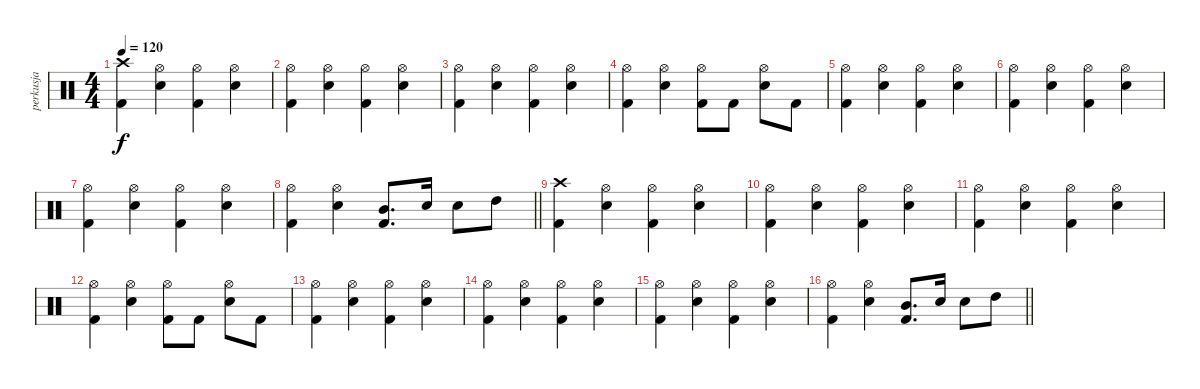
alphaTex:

\track ("perkusja" "perkusja") {instrument percussion}
\staff {score}
\articulation defaults
\ts (4 4)
\tempo 120
\clef neutral
\ks c
("Crash high (hit)" "Kick (hit) 2").4{dy f} ("Hi-Hat (open)" "Electric Snare (hit)").4 ("Hi-Hat (open)" "Kick (hit) 2").4 ("Hi-Hat (open)" "Electric Snare (hit)").4 |
("Hi-Hat (open)" "Kick (hit) 2").4 ("Hi-Hat (open)" "Electric Snare (hit)").4 ("Hi-Hat (open)" "Kick (hit) 2").4 ("Hi-Hat (open)" "Electric Snare (hit)").4 |
("Hi-Hat (open)" "Kick (hit) 2").4 ("Hi-Hat (open)" "Electric Snare (hit)").4 ("Hi-Hat (open)" "Kick (hit) 2").4 ("Hi-Hat (open)" "Electric Snare (hit)").4 |
("Hi-Hat (open)" "Kick (hit) 2").4 ("Hi-Hat (open)" "Electric Snare (hit)").4 ("Hi-Hat (open)" "Kick (hit) 2").8 "Kick (hit) 2".8 ("Hi-Hat (open)" "Electric Snare (hit)").8 "Kick (hit) 2".8 |
("Hi-Hat (open)" "Kick (hit) 2").4 ("Hi-Hat (open)" "Electric Snare (hit)").4 ("Hi-Hat (open)" "Kick (hit) 2").4 ("Hi-Hat (open)" "Electric Snare (hit)").4 |
("Hi-Hat (open)" "Kick (hit) 2").4 ("Hi-Hat (open)" "Electric Snare (hit)").4 ("Hi-Hat (open)" "Kick (hit) 2").4 ("Hi-Hat (open)" "Electric Snare (hit)").4 |
("Hi-Hat (open)" "Kick (hit) 2").4 ("Hi-Hat (open)" "Electric Snare (hit)").4 ("Hi-Hat (open)" "Kick (hit) 2").4 ("Hi-Hat (open)" "Electric Snare (hit)").4 |
\barLineRight lightlight
("Hi-Hat (open)" "Kick (hit) 2").4 ("Hi-Hat (open)" "Electric Snare (hit)").4 ("Mid Tom (hit)" "Kick (hit) 2").8{d} "Electric Snare (hit)".16 "Electric Snare (hit)".8 "High Tom (hit)".8 |
("Crash high (hit)" "Kick (hit) 2").4 ("Hi-Hat (open)" "Electric Snare (hit)").4 ("Hi-Hat (open)" "Kick (hit) 2").4 ("Hi-Hat (open)" "Electric Snare (hit)").4 |
("Hi-Hat (open)" "Kick (hit) 2").4 ("Hi-Hat (open)" "Electric Snare (hit)").4 ("Hi-Hat (open)" "Kick (hit) 2").4 ("Hi-Hat (open)" "Electric Snare (hit)").4 |
("Hi-Hat (open)" "Kick (hit) 2").4 ("Hi-Hat (open)" "Electric Snare (hit)").4 ("Hi-Hat (open)" "Kick (hit) 2").4 ("Hi-Hat (open)" "Electric Snare (hit)").4 |
("Hi-Hat (open)" "Kick (hit) 2").4 ("Hi-Hat (open)" "Electric Snare (hit)").4 ("Hi-Hat (open)" "Kick (hit) 2").8 "Kick (hit) 2".8 ("Hi-Hat (open)" "Electric Snare (hit)").8 "Kick (hit) 2".8 |
("Hi-Hat (open)" "Kick (hit) 2").4 ("Hi-Hat (open)" "Electric Snare (hit)").4 ("Hi-Hat (open)" "Kick (hit) 2").4 ("Hi-Hat (open)" "Electric Snare (hit)").4 |
("Hi-Hat (open)" "Kick (hit) 2").4 ("Hi-Hat (open)" "Electric Snare (hit)").4 ("Hi-Hat (open)" "Kick (hit) 2").4 ("Hi-Hat (open)" "Electric Snare (hit)").4 |
("Hi-Hat (open)" "Kick (hit) 2").4 ("Hi-Hat (open)" "Electric Snare (hit)").4 ("Hi-Hat (open)" "Kick (hit) 2").4 ("Hi-Hat (open)" "Electric Snare (hit)").4 |
\barLineRight lightlight
("Hi-Hat (open)" "Kick (hit) 2").4 ("Hi-Hat (open)" "Electric Snare (hit)").4 ("Mid Tom (hit)" "Kick (hit) 2").8{d} "Electric Snare (hit)".16 "Electric Snare (hit)".8 "High Tom (hit)".8
